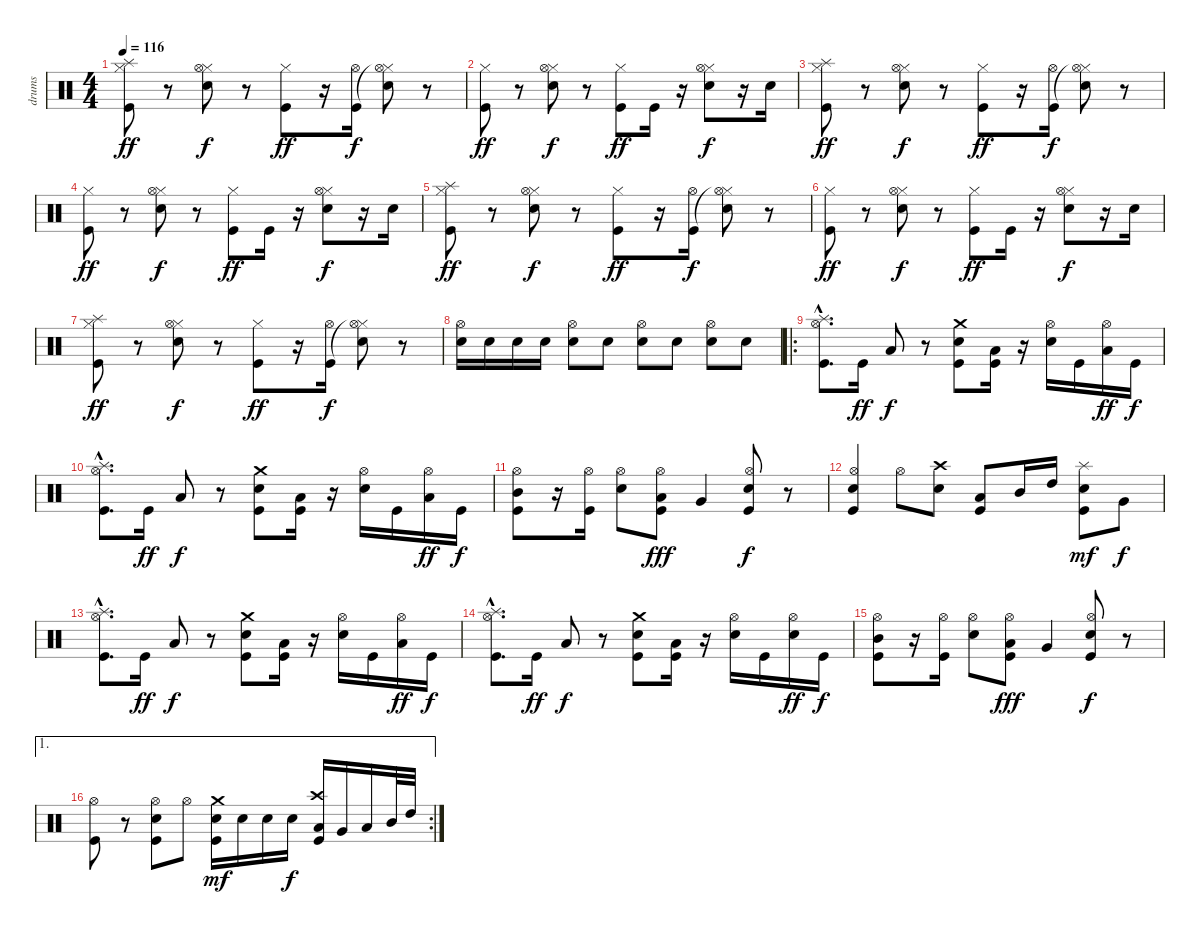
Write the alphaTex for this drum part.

\track ("drums" "drums") {instrument percussion}
\staff {score}
\articulation defaults
\ts (4 4)
\tempo 116
\clef neutral
\ks c
("Hi-Hat (closed)" "Splash (hit)" "Kick (hit)").8{dy ff} r.8 ("Hi-Hat (closed)" "Hi-Hat (open)" "Electric Snare (hit)").8{dy f} r.8 ("Hi-Hat (closed)" "Kick (hit)").8{dy ff} r.16 ("Hi-Hat (open)" "Kick (hit)").16{dy f} ("Hi-Hat (closed)" "Hi-Hat (open)"{t} "Electric Snare (hit)").8 r.8 |
("Hi-Hat (closed)" "Kick (hit)").8{dy ff} r.8 ("Hi-Hat (closed)" "Hi-Hat (open)" "Electric Snare (hit)").8{dy f} r.8 ("Hi-Hat (closed)" "Kick (hit)").8{dy ff} "Kick (hit)".16 r.16 ("Hi-Hat (closed)" "Hi-Hat (open)" "Electric Snare (hit)").8{dy f} r.16 "Electric Snare (hit)".16 |
("Hi-Hat (closed)" "Splash (hit)" "Kick (hit)").8{dy ff} r.8 ("Hi-Hat (closed)" "Hi-Hat (open)" "Electric Snare (hit)").8{dy f} r.8 ("Hi-Hat (closed)" "Kick (hit)").8{dy ff} r.16 ("Hi-Hat (open)" "Kick (hit)").16{dy f} ("Hi-Hat (closed)" "Hi-Hat (open)"{t} "Electric Snare (hit)").8 r.8 |
("Hi-Hat (closed)" "Kick (hit)").8{dy ff} r.8 ("Hi-Hat (closed)" "Hi-Hat (open)" "Electric Snare (hit)").8{dy f} r.8 ("Hi-Hat (closed)" "Kick (hit)").8{dy ff} "Kick (hit)".16 r.16 ("Hi-Hat (closed)" "Hi-Hat (open)" "Electric Snare (hit)").8{dy f} r.16 "Electric Snare (hit)".16 |
("Hi-Hat (closed)" "Splash (hit)" "Kick (hit)").8{dy ff} r.8 ("Hi-Hat (closed)" "Hi-Hat (open)" "Electric Snare (hit)").8{dy f} r.8 ("Hi-Hat (closed)" "Kick (hit)").8{dy ff} r.16 ("Hi-Hat (open)" "Kick (hit)").16{dy f} ("Hi-Hat (closed)" "Hi-Hat (open)"{t} "Electric Snare (hit)").8 r.8 |
("Hi-Hat (closed)" "Kick (hit)").8{dy ff} r.8 ("Hi-Hat (closed)" "Hi-Hat (open)" "Electric Snare (hit)").8{dy f} r.8 ("Hi-Hat (closed)" "Kick (hit)").8{dy ff} "Kick (hit)".16 r.16 ("Hi-Hat (closed)" "Hi-Hat (open)" "Electric Snare (hit)").8{dy f} r.16 "Electric Snare (hit)".16 |
("Hi-Hat (closed)" "Splash (hit)" "Kick (hit)").8{dy ff} r.8 ("Hi-Hat (closed)" "Hi-Hat (open)" "Electric Snare (hit)").8{dy f} r.8 ("Hi-Hat (closed)" "Kick (hit)").8{dy ff} r.16 ("Hi-Hat (open)" "Kick (hit)").16{dy f} ("Hi-Hat (closed)" "Hi-Hat (open)"{t} "Electric Snare (hit)").8 r.8 |
("Hi-Hat (open)" "Electric Snare (hit)").16 "Electric Snare (hit)".16 "Electric Snare (hit)".16 "Electric Snare (hit)".16 ("Hi-Hat (open)" "Electric Snare (hit)").8 "Electric Snare (hit)".8 ("Hi-Hat (open)" "Electric Snare (hit)").8 "Electric Snare (hit)".8 ("Hi-Hat (open)" "Electric Snare (hit)").8 "Electric Snare (hit)".8 |
\ro
("Hi-Hat (open)"{hac} "Splash (hit)"{hac} "Kick (hit)"{hac}).8{d} "Kick (hit)".16{dy ff} "Low Tom (hit)".8{dy f} r.8 ("Crash medium (hit)" "Electric Snare (hit)" "Kick (hit)").8 ("Low Tom (hit)" "Kick (hit)").16 r.16 ("Hi-Hat (open)" "Electric Snare (hit)").16 "Kick (hit)".16 ("Hi-Hat (open)" "Low Tom (hit)").16{dy ff} "Kick (hit)".16{dy f} |
("Hi-Hat (open)"{hac} "Splash (hit)"{hac} "Kick (hit)"{hac}).8{d} "Kick (hit)".16{dy ff} "Low Tom (hit)".8{dy f} r.8 ("Crash medium (hit)" "Electric Snare (hit)" "Kick (hit)").8 ("Low Tom (hit)" "Kick (hit)").16 r.16 ("Hi-Hat (open)" "Electric Snare (hit)").16 "Kick (hit)".16 ("Hi-Hat (open)" "Low Tom (hit)").16{dy ff} "Kick (hit)".16{dy f} |
("Hi-Hat (open)" "Mid Tom (hit)" "Kick (hit)").8 r.16 ("Hi-Hat (open)" "Kick (hit)").16 ("Hi-Hat (open)" "Electric Snare (hit)").8 ("Hi-Hat (open)" "Low Tom (hit)" "Kick (hit)").8{dy fff} "Very Low Tom (hit)".4 ("Hi-Hat (open)" "Electric Snare (hit)" "Kick (hit)").8{dy f} r.8 |
("Electric Snare (hit)" "Hi-Hat (open)" "Kick (hit)").4 "Hi-Hat (open)".8 ("Crash high (hit)" "Electric Snare (hit)").8 ("Low Tom (hit)" "Kick (hit)").8 "Mid Tom (hit)".16 "High Tom (hit)".16 ("Splash (hit)" "Electric Snare (hit)" "Kick (hit)").8{dy mf} "Very Low Tom (hit)".8{dy f} |
("Hi-Hat (open)"{hac} "Splash (hit)"{hac} "Kick (hit)"{hac}).8{d} "Kick (hit)".16{dy ff} "Low Tom (hit)".8{dy f} r.8 ("Crash medium (hit)" "Electric Snare (hit)" "Kick (hit)").8 ("Low Tom (hit)" "Kick (hit)").16 r.16 ("Hi-Hat (open)" "Electric Snare (hit)").16 "Kick (hit)".16 ("Hi-Hat (open)" "Low Tom (hit)").16{dy ff} "Kick (hit)".16{dy f} |
("Hi-Hat (open)"{hac} "Splash (hit)"{hac} "Kick (hit)"{hac}).8{d} "Kick (hit)".16{dy ff} "Low Tom (hit)".8{dy f} r.8 ("Crash medium (hit)" "Electric Snare (hit)" "Kick (hit)").8 ("Low Tom (hit)" "Kick (hit)").16 r.16 ("Hi-Hat (open)" "Electric Snare (hit)").16 "Kick (hit)".16 ("Hi-Hat (open)" "Electric Snare (hit)").16{dy ff} "Kick (hit)".16{dy f} |
("Hi-Hat (open)" "Mid Tom (hit)" "Kick (hit)").8 r.16 ("Hi-Hat (open)" "Kick (hit)").16 ("Hi-Hat (open)" "Electric Snare (hit)").8 ("Hi-Hat (open)" "Low Tom (hit)" "Kick (hit)").8{dy fff} "Very Low Tom (hit)".4 ("Hi-Hat (open)" "Electric Snare (hit)" "Kick (hit)").8{dy f} r.8 |
\ae 1
\rc 2
("Hi-Hat (open)" "Kick (hit)").8 r.8 ("Hi-Hat (open)" "Electric Snare (hit)" "Kick (hit)").8 "Hi-Hat (open)".8 ("Crash medium (hit)" "Electric Snare (hit)" "Kick (hit)").16{dy mf} "Electric Snare (hit)".16 "Electric Snare (hit)".16 "Electric Snare (hit)".16{dy f} ("Crash high (hit)" "Low Floor Tom (hit)" "Kick (hit)").16 "Very Low Tom (hit)".16 "Low Tom (hit)".16 "Mid Tom (hit)".32 "High Tom (hit)".32
